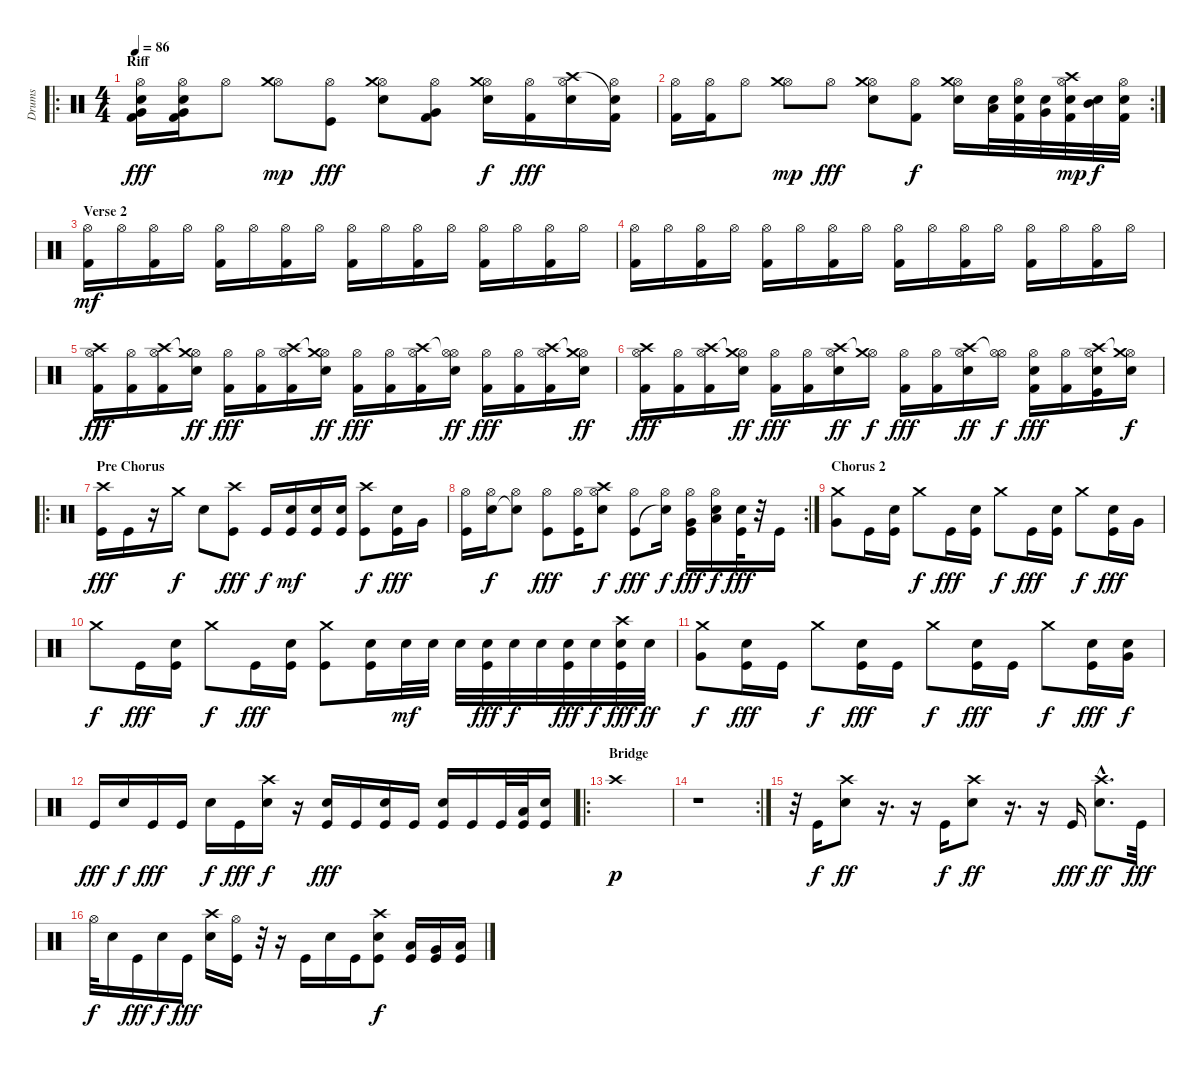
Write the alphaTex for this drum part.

\track ("Drums" "Drums") {instrument percussion}
\staff {score}
\articulation defaults
\ro
\ts (4 4)
\section ("" "Riff")
\tempo 86
\clef neutral
\ks c
("Hi-Hat (open)" "Very Low Tom (hit)" "Snare (hit) 2" "Kick (hit) 2").16{dy fff} ("Hi-Hat (open)" "Very Low Tom (hit)" "Snare (hit) 2" "Kick (hit) 2").16 "Hi-Hat (open)".8 ("Hi-Hat (open)" "Crash medium (hit)").8{dy mp} ("Hi-Hat (open)" "Kick (hit)").8{dy fff} ("Hi-Hat (open)" "Crash medium (hit)" "Snare (hit) 2").8 ("Hi-Hat (open)" "Very Low Tom (hit)" "Kick (hit) 2").8 ("Hi-Hat (open)" "Crash medium (hit)" "Snare (hit) 2").16{dy f} ("Hi-Hat (open)" "Kick (hit) 2").16{dy fff} ("Hi-Hat (open)" "Crash high (hit)" "Snare (hit) 2").16 ("Hi-Hat (open)" "Snare (hit)"{t} "Kick (hit) 2").16 |
\rc 2
("Hi-Hat (open)" "Kick (hit) 2").16 ("Hi-Hat (open)" "Kick (hit) 2").16 "Hi-Hat (open)".8 ("Hi-Hat (open)" "Crash medium (hit)").8{dy mp} "Hi-Hat (open)".8{dy fff} ("Hi-Hat (open)" "Crash medium (hit)" "Snare (hit) 2").8 ("Hi-Hat (open)" "Kick (hit) 2").8{dy f} ("Hi-Hat (open)" "Crash medium (hit)" "Snare (hit) 2").16 ("Low Tom (hit)" "Snare (hit) 2").32 ("Hi-Hat (open)" "Snare (hit) 2" "Kick (hit) 2").32 ("Very Low Tom (hit)" "Snare (hit) 2").32 ("Hi-Hat (open)" "Crash high (hit)" "Snare (hit) 2" "Kick (hit) 2").32{dy mp} ("Mid Tom (hit)" "Snare (hit) 2").32{dy f} ("Hi-Hat (open)" "Snare (hit) 2" "Kick (hit) 2").32 |
\section ("" "Verse 2")
("Hi-Hat (open)" "Kick (hit) 2").16{dy mf} "Hi-Hat (open)".16 ("Hi-Hat (open)" "Kick (hit) 2").16 "Hi-Hat (open)".16 ("Hi-Hat (open)" "Kick (hit) 2").16 "Hi-Hat (open)".16 ("Hi-Hat (open)" "Kick (hit) 2").16 "Hi-Hat (open)".16 ("Hi-Hat (open)" "Kick (hit) 2").16 "Hi-Hat (open)".16 ("Hi-Hat (open)" "Kick (hit) 2").16 "Hi-Hat (open)".16 ("Hi-Hat (open)" "Kick (hit) 2").16 "Hi-Hat (open)".16 ("Hi-Hat (open)" "Kick (hit) 2").16 "Hi-Hat (open)".16 |
("Hi-Hat (open)" "Kick (hit) 2").16 "Hi-Hat (open)".16 ("Hi-Hat (open)" "Kick (hit) 2").16 "Hi-Hat (open)".16 ("Hi-Hat (open)" "Kick (hit) 2").16 "Hi-Hat (open)".16 ("Hi-Hat (open)" "Kick (hit) 2").16 "Hi-Hat (open)".16 ("Hi-Hat (open)" "Kick (hit) 2").16 "Hi-Hat (open)".16 ("Hi-Hat (open)" "Kick (hit) 2").16 "Hi-Hat (open)".16 ("Hi-Hat (open)" "Kick (hit) 2").16 "Hi-Hat (open)".16 ("Hi-Hat (open)" "Kick (hit) 2").16 "Hi-Hat (open)".16 |
("Hi-Hat (open)" "Crash high (hit)" "Kick (hit) 2").16{dy fff} ("Hi-Hat (open)" "Kick (hit) 2").16 ("Hi-Hat (open)" "Crash high (hit)" "Kick (hit) 2").16 ("Hi-Hat (open)" "Crash medium (hit)"{t} "Snare (hit) 2").16{dy ff} ("Hi-Hat (open)" "Kick (hit) 2").16{dy fff} ("Hi-Hat (open)" "Kick (hit) 2").16 ("Hi-Hat (open)" "Crash high (hit)" "Kick (hit) 2").16 ("Hi-Hat (open)" "Crash medium (hit)"{t} "Snare (hit) 2").16{dy ff} ("Hi-Hat (open)" "Kick (hit) 2").16{dy fff} ("Hi-Hat (open)" "Kick (hit) 2").16 ("Hi-Hat (open)" "Crash high (hit)" "Kick (hit) 2").16 ("Hi-Hat (open)" "Hi-Hat (open)"{t} "Snare (hit) 2").16{dy ff} ("Hi-Hat (open)" "Kick (hit) 2").16{dy fff} ("Hi-Hat (open)" "Kick (hit) 2").16 ("Hi-Hat (open)" "Crash high (hit)" "Kick (hit) 2").16 ("Hi-Hat (open)" "Crash medium (hit)"{t} "Snare (hit) 2").16{dy ff} |
("Hi-Hat (open)" "Crash high (hit)" "Kick (hit) 2").16{dy fff} ("Hi-Hat (open)" "Kick (hit) 2").16 ("Hi-Hat (open)" "Crash high (hit)" "Kick (hit) 2").16 ("Hi-Hat (open)" "Crash medium (hit)"{t} "Snare (hit) 2").16{dy ff} ("Hi-Hat (open)" "Kick (hit) 2").16{dy fff} ("Hi-Hat (open)" "Kick (hit) 2").16 ("Hi-Hat (open)" "Crash high (hit)" "Snare (hit) 2").16{dy ff} ("Hi-Hat (open)" "Crash medium (hit)"{t}).16{dy f} ("Hi-Hat (open)" "Kick (hit) 2").16{dy fff} ("Hi-Hat (open)" "Kick (hit) 2").16 ("Hi-Hat (open)" "Crash high (hit)" "Snare (hit) 2").16{dy ff} ("Hi-Hat (open)" "Hi-Hat (open)"{t}).16{dy f} ("Hi-Hat (open)" "Snare (hit) 2" "Kick (hit) 2").16{dy fff} ("Hi-Hat (open)" "Kick (hit) 2").16 ("Hi-Hat (open)" "Crash high (hit)" "Snare (hit) 2" "Kick (hit)").16 ("Hi-Hat (open)" "Crash medium (hit)"{t} "Snare (hit) 2").16{dy f} |
\ro
\section ("" "Pre Chorus")
("Crash high (hit)" "Kick (hit)").16{dy fff} "Kick (hit)".16 r.16 "Crash medium (hit)".16{dy f} "Snare (hit) 2".8 ("Crash high (hit)" "Kick (hit)").8{dy fff} "Kick (hit)".16{dy f} ("Snare (hit) 2" "Kick (hit)").16{dy mf} ("Snare (hit) 2" "Kick (hit)").16 ("Snare (hit) 2" "Kick (hit)").16 ("Crash high (hit)" "Kick (hit)").8{dy f} ("Snare (hit) 2" "Kick (hit)").16{dy fff} "Very Low Tom (hit)".16 |
\rc 2
("Hi-Hat (open)" "Kick (hit)").16 ("Snare (hit) 2" "Hi-Hat (open)").16{dy f} ("Snare (hit) 2"{t} "Hi-Hat (open)").8 ("Hi-Hat (open)" "Kick (hit)").8{dy fff} ("Hi-Hat (open)" "Kick (hit)").16 ("Crash high (hit)" "Snare (hit) 2" "Hi-Hat (open)").8{dy f} ("Hi-Hat (open)" "Kick (hit)").8{dy fff} ("Hi-Hat (open)" "Snare (hit)"{t}).16{dy f} ("Very Low Tom (hit)" "Hi-Hat (open)" "Kick (hit)").16{dy fff} ("Low Tom (hit)" "Snare (hit) 2" "Hi-Hat (open)").16{dy f} ("Kick (hit)" "Snare (hit) 2").32{dy fff} r.32 "Kick (hit)".16 |
\section ("" "Chorus 2")
("Very Low Tom (hit)" "Crash medium (hit)").8 "Kick (hit)".16 ("Snare (hit) 2" "Kick (hit)").16 "Crash medium (hit)".8{dy f} "Kick (hit)".16{dy fff} ("Snare (hit) 2" "Kick (hit)").16 "Crash medium (hit)".8{dy f} "Kick (hit)".16{dy fff} ("Snare (hit) 2" "Kick (hit)").16 "Crash medium (hit)".8{dy f} ("Snare (hit) 2" "Kick (hit)").16{dy fff} "Very Low Tom (hit)".16 |
"Crash medium (hit)".8{dy f} "Kick (hit)".16{dy fff} ("Snare (hit) 2" "Kick (hit)").16 "Crash medium (hit)".8{dy f} "Kick (hit)".16{dy fff} ("Snare (hit) 2" "Kick (hit)").16 ("Crash medium (hit)" "Kick (hit)").8 ("Snare (hit) 2" "Kick (hit)").16 "Snare (hit) 2".32{dy mf} "Snare (hit) 2".32 "Snare (hit) 2".32 ("Snare (hit) 2" "Kick (hit)").32{dy fff} "Snare (hit) 2".32{dy f} "Snare (hit) 2".32 ("Snare (hit) 2" "Kick (hit)").32{dy fff} "Snare (hit) 2".32{dy f} ("Crash high (hit)" "Snare (hit) 2" "Kick (hit)").32{dy fff} "Snare (hit) 2".32{dy ff} |
("Very Low Tom (hit)" "Crash medium (hit)").8{dy f} ("Snare (hit) 2" "Kick (hit)").16{dy fff} "Kick (hit)".16 "Crash medium (hit)".8{dy f} ("Snare (hit) 2" "Kick (hit)").16{dy fff} "Kick (hit)".16 "Crash medium (hit)".8{dy f} ("Snare (hit) 2" "Kick (hit)").16{dy fff} "Kick (hit)".16 "Crash medium (hit)".8{dy f} ("Snare (hit) 2" "Kick (hit)").16{dy fff} ("Very Low Tom (hit)" "Snare (hit) 2").16{dy f} |
"Kick (hit)".16{dy fff} "Snare (hit) 2".16{dy f} "Kick (hit)".16{dy fff} "Kick (hit)".16 "Snare (hit) 2".16{dy f} "Kick (hit)".16{dy fff} ("Snare (hit) 2" "Crash high (hit)").16{dy f} r.16 ("Snare (hit) 2" "Kick (hit)").16{dy fff} "Kick (hit)".16 ("Snare (hit) 2" "Kick (hit)").16 "Kick (hit)".16 ("Snare (hit) 2" "Kick (hit)").16 "Kick (hit)".16 "Kick (hit)".32 ("Low Tom (hit)" "Kick (hit)").32 ("Snare (hit) 2" "Kick (hit)").16 |
\ro
\section ("" "Bridge")
"Crash high (hit)".1{dy p} |
\rc 2
r.1 |
r.32 "Kick (hit)".16{dy f} ("Crash high (hit)" "Snare (hit) 2").8{dy ff} r.16{d} r.16 "Kick (hit)".16{dy f} ("Crash high (hit)" "Snare (hit) 2").8{dy ff} r.16{d} r.16 "Kick (hit)".16{dy fff} ("Crash high (hit)"{hac} "Snare (hit) 2"{hac}).8{d dy ff} "Kick (hit)".32{dy fff} |
"Hi-Hat (open)".32{dy f} "Snare (hit) 2".16 "Kick (hit)".16{dy fff} "Snare (hit) 2".16{dy f} "Kick (hit)".16{dy fff} ("Crash high (hit)" "Snare (hit) 2").16 ("Hi-Hat (open)" "Kick (hit)").16 r.32 r.16 "Kick (hit)".16 "Snare (hit) 2".16 "Kick (hit)".16 ("Crash high (hit)" "Snare (hit) 2" "Kick (hit)").8{dy f} ("Low Floor Tom (hit)" "Kick (hit)").16 ("Very Low Tom (hit)" "Kick (hit)").16 ("Low Tom (hit)" "Kick (hit)").16
